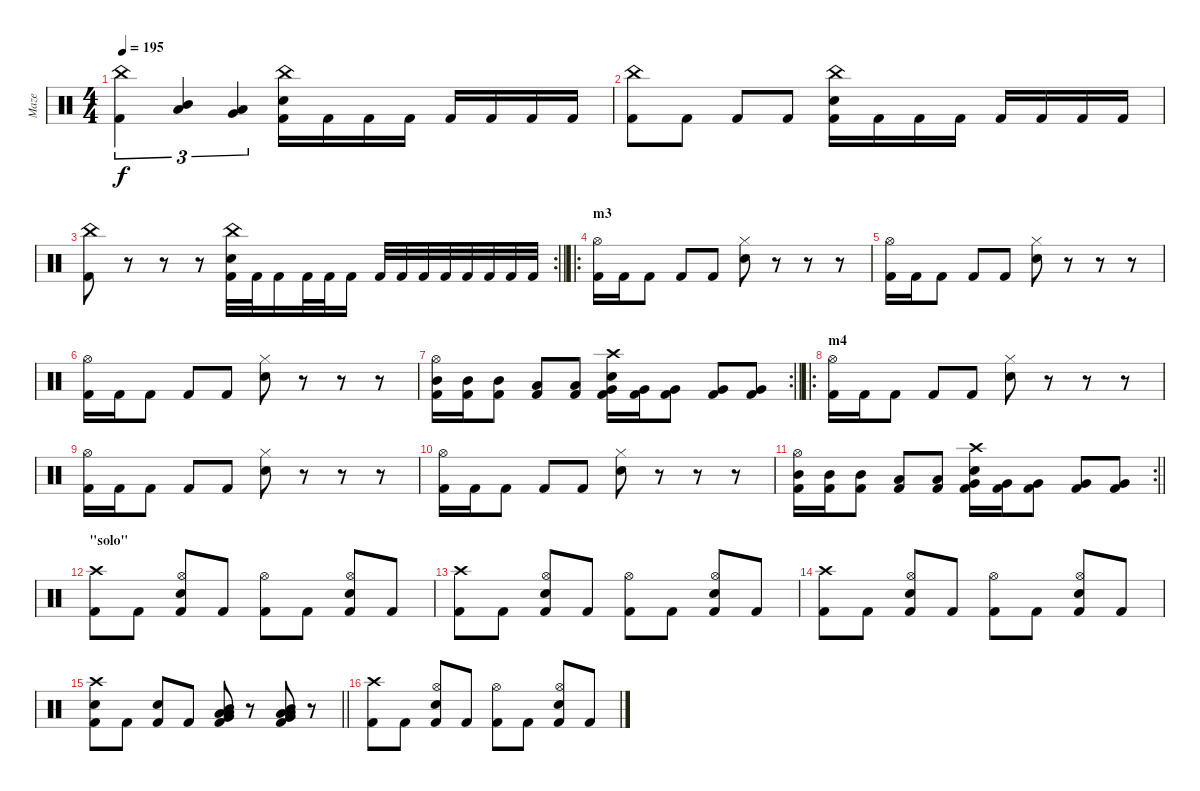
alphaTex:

\track ("Maze" "Maze") {instrument percussion}
\staff
\articulation defaults
\ts (4 4)
\tempo 195
\clef neutral
\ks c
("China (hit)" "Kick (hit) 2").4{tu (3 2) dy f} ("Mid Tom (hit)" "Low Tom (hit)").4{tu (3 2)} ("Low Tom (hit)" "Very Low Tom (hit)").4{tu (3 2)} ("Snare (hit) 2" "China (hit)" "Kick (hit) 2").16 "Kick (hit) 2".16 "Kick (hit) 2".16 "Kick (hit) 2".16 "Kick (hit) 2".16 "Kick (hit) 2".16 "Kick (hit) 2".16 "Kick (hit) 2".16 |
("China (hit)" "Kick (hit) 2").8 "Kick (hit) 2".8 "Kick (hit) 2".8 "Kick (hit) 2".8 ("Snare (hit) 2" "China (hit)" "Kick (hit) 2").16 "Kick (hit) 2".16 "Kick (hit) 2".16 "Kick (hit) 2".16 "Kick (hit) 2".16 "Kick (hit) 2".16 "Kick (hit) 2".16 "Kick (hit) 2".16 |
\rc 2
\barLineRight lightlight
("China (hit)" "Kick (hit) 2").8 r.8 r.8 r.8 ("Snare (hit) 2" "China (hit)" "Kick (hit) 2").32 "Kick (hit) 2".32 "Kick (hit) 2".16 "Kick (hit) 2".32 "Kick (hit) 2".32 "Kick (hit) 2".16 "Kick (hit) 2".32 "Kick (hit) 2".32 "Kick (hit) 2".32 "Kick (hit) 2".32 "Kick (hit) 2".32 "Kick (hit) 2".32 "Kick (hit) 2".32 "Kick (hit) 2".32 |
\ro
\section ("" "m3")
("Hi-Hat (open)" "Kick (hit) 2").16 "Kick (hit) 2".16 "Kick (hit) 2".8 "Kick (hit) 2".8 "Kick (hit) 2".8 ("Snare (hit) 2" "Hi-Hat (closed)").8 r.8 r.8 r.8 |
("Hi-Hat (open)" "Kick (hit) 2").16 "Kick (hit) 2".16 "Kick (hit) 2".8 "Kick (hit) 2".8 "Kick (hit) 2".8 ("Snare (hit) 2" "Hi-Hat (closed)").8 r.8 r.8 r.8 |
("Hi-Hat (open)" "Kick (hit) 2").16 "Kick (hit) 2".16 "Kick (hit) 2".8 "Kick (hit) 2".8 "Kick (hit) 2".8 ("Snare (hit) 2" "Hi-Hat (closed)").8 r.8 r.8 r.8 |
\rc 2
\barLineRight lightlight
("Mid Tom (hit)" "Hi-Hat (open)" "Kick (hit) 2").16 ("Mid Tom (hit)" "Kick (hit) 2").16 ("Mid Tom (hit)" "Kick (hit) 2").8 ("Low Tom (hit)" "Kick (hit) 2").8 ("Low Tom (hit)" "Kick (hit) 2").8 ("Snare (hit) 2" "Crash high (hit)" "Very Low Tom (hit)" "Kick (hit) 2").16 ("Very Low Tom (hit)" "Kick (hit) 2").16 ("Very Low Tom (hit)" "Kick (hit) 2").8 ("Very Low Tom (hit)" "Kick (hit) 2").8 ("Very Low Tom (hit)" "Kick (hit) 2").8 |
\ro
\section ("" "m4")
("Hi-Hat (open)" "Kick (hit) 2").16 "Kick (hit) 2".16 "Kick (hit) 2".8 "Kick (hit) 2".8 "Kick (hit) 2".8 ("Snare (hit) 2" "Hi-Hat (closed)").8 r.8 r.8 r.8 |
("Hi-Hat (open)" "Kick (hit) 2").16 "Kick (hit) 2".16 "Kick (hit) 2".8 "Kick (hit) 2".8 "Kick (hit) 2".8 ("Snare (hit) 2" "Hi-Hat (closed)").8 r.8 r.8 r.8 |
("Hi-Hat (open)" "Kick (hit) 2").16 "Kick (hit) 2".16 "Kick (hit) 2".8 "Kick (hit) 2".8 "Kick (hit) 2".8 ("Snare (hit) 2" "Hi-Hat (closed)").8 r.8 r.8 r.8 |
\rc 2
\barLineRight lightlight
("Mid Tom (hit)" "Hi-Hat (open)" "Kick (hit) 2").16 ("Mid Tom (hit)" "Kick (hit) 2").16 ("Mid Tom (hit)" "Kick (hit) 2").8 ("Low Tom (hit)" "Kick (hit) 2").8 ("Low Tom (hit)" "Kick (hit) 2").8 ("Snare (hit) 2" "Crash high (hit)" "Very Low Tom (hit)" "Kick (hit) 2").16 ("Very Low Tom (hit)" "Kick (hit) 2").16 ("Very Low Tom (hit)" "Kick (hit) 2").8 ("Very Low Tom (hit)" "Kick (hit) 2").8 ("Very Low Tom (hit)" "Kick (hit) 2").8 |
\section ("" "\"solo\"")
("Crash high (hit)" "Kick (hit) 2").8 "Kick (hit) 2".8 ("Electric Snare (hit)" "Hi-Hat (open)" "Kick (hit) 2").8 "Kick (hit) 2".8 ("Hi-Hat (open)" "Kick (hit) 2").8 "Kick (hit) 2".8 ("Electric Snare (hit)" "Hi-Hat (open)" "Kick (hit) 2").8 "Kick (hit) 2".8 |
("Crash high (hit)" "Kick (hit) 2").8 "Kick (hit) 2".8 ("Electric Snare (hit)" "Hi-Hat (open)" "Kick (hit) 2").8 "Kick (hit) 2".8 ("Hi-Hat (open)" "Kick (hit) 2").8 "Kick (hit) 2".8 ("Electric Snare (hit)" "Hi-Hat (open)" "Kick (hit) 2").8 "Kick (hit) 2".8 |
("Crash high (hit)" "Kick (hit) 2").8 "Kick (hit) 2".8 ("Electric Snare (hit)" "Hi-Hat (open)" "Kick (hit) 2").8 "Kick (hit) 2".8 ("Hi-Hat (open)" "Kick (hit) 2").8 "Kick (hit) 2".8 ("Electric Snare (hit)" "Hi-Hat (open)" "Kick (hit) 2").8 "Kick (hit) 2".8 |
\barLineRight lightlight
("Crash high (hit)" "Snare (hit) 2" "Kick (hit) 2").8 "Kick (hit) 2".8 ("Electric Snare (hit)" "Kick (hit) 2").8 "Kick (hit) 2".8 ("Mid Tom (hit)" "Low Tom (hit)" "Very Low Tom (hit)" "Low Floor Tom (hit)" "Kick (hit) 2").8 r.8 ("Mid Tom (hit)" "Low Tom (hit)" "Very Low Tom (hit)" "Low Floor Tom (hit)" "Kick (hit) 2").8 r.8 |
("Crash high (hit)" "Kick (hit) 2").8 "Kick (hit) 2".8 ("Electric Snare (hit)" "Hi-Hat (open)" "Kick (hit) 2").8 "Kick (hit) 2".8 ("Hi-Hat (open)" "Kick (hit) 2").8 "Kick (hit) 2".8 ("Electric Snare (hit)" "Hi-Hat (open)" "Kick (hit) 2").8 "Kick (hit) 2".8
